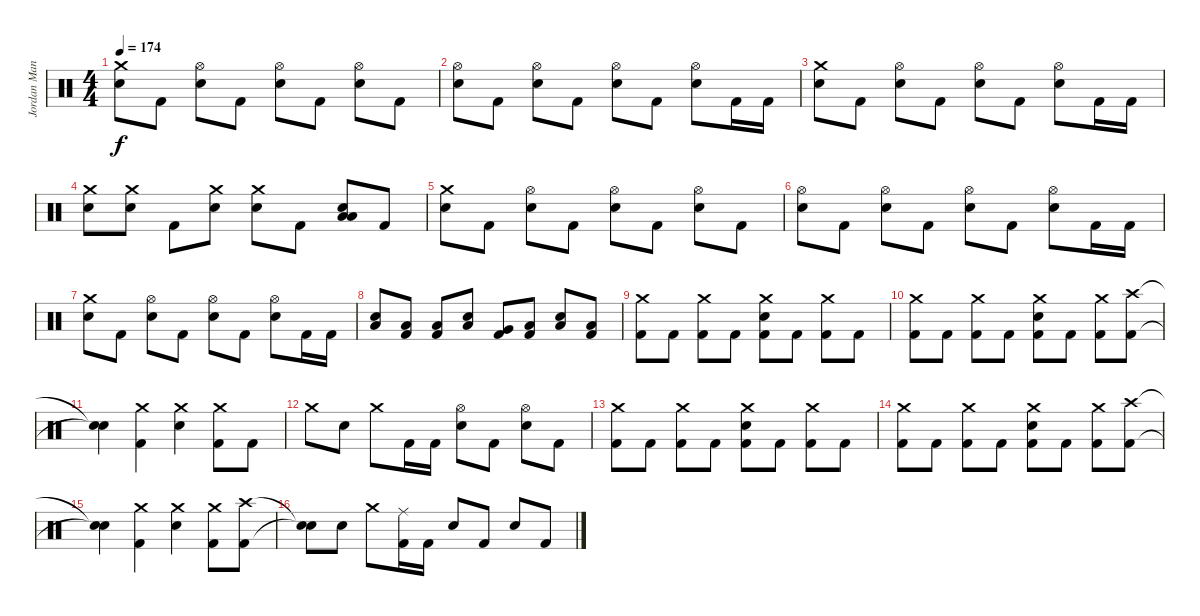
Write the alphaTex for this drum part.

\track ("Jordan Manchino (Drums)" "Jordan Man") {instrument percussion}
\staff {score}
\articulation defaults
\ts (4 4)
\tempo 174
\clef neutral
\ks c
("Crash medium (hit)" "Snare (hit) 2").8{dy f} "Kick (hit) 2".8 ("Hi-Hat (open)" "Snare (hit) 2").8 "Kick (hit) 2".8 ("Hi-Hat (open)" "Snare (hit) 2").8 "Kick (hit) 2".8 ("Hi-Hat (open)" "Snare (hit) 2").8 "Kick (hit) 2".8 |
("Hi-Hat (open)" "Snare (hit) 2").8 "Kick (hit) 2".8 ("Hi-Hat (open)" "Snare (hit) 2").8 "Kick (hit) 2".8 ("Hi-Hat (open)" "Snare (hit) 2").8 "Kick (hit) 2".8 ("Hi-Hat (open)" "Snare (hit) 2").8 "Kick (hit) 2".16 "Kick (hit) 2".16 |
("Crash medium (hit)" "Snare (hit) 2").8 "Kick (hit) 2".8 ("Hi-Hat (open)" "Snare (hit) 2").8 "Kick (hit) 2".8 ("Hi-Hat (open)" "Snare (hit) 2").8 "Kick (hit) 2".8 ("Hi-Hat (open)" "Snare (hit) 2").8 "Kick (hit) 2".16 "Kick (hit) 2".16 |
("Crash medium (hit)" "Snare (hit) 2").8 ("Crash medium (hit)" "Snare (hit) 2").8 "Kick (hit) 2".8 ("Crash medium (hit)" "Snare (hit) 2").8 ("Crash medium (hit)" "Snare (hit) 2").8 "Kick (hit) 2".8 ("Low Floor Tom (hit)" "Low Tom (hit)" "Snare (hit) 2").8 "Kick (hit) 2".8 |
("Crash medium (hit)" "Snare (hit) 2").8 "Kick (hit) 2".8 ("Hi-Hat (open)" "Snare (hit) 2").8 "Kick (hit) 2".8 ("Hi-Hat (open)" "Snare (hit) 2").8 "Kick (hit) 2".8 ("Hi-Hat (open)" "Snare (hit) 2").8 "Kick (hit) 2".8 |
("Hi-Hat (open)" "Snare (hit) 2").8 "Kick (hit) 2".8 ("Hi-Hat (open)" "Snare (hit) 2").8 "Kick (hit) 2".8 ("Hi-Hat (open)" "Snare (hit) 2").8 "Kick (hit) 2".8 ("Hi-Hat (open)" "Snare (hit) 2").8 "Kick (hit) 2".16 "Kick (hit) 2".16 |
("Crash medium (hit)" "Snare (hit) 2").8 "Kick (hit) 2".8 ("Hi-Hat (open)" "Snare (hit) 2").8 "Kick (hit) 2".8 ("Hi-Hat (open)" "Snare (hit) 2").8 "Kick (hit) 2".8 ("Hi-Hat (open)" "Snare (hit) 2").8 "Kick (hit) 2".16 "Kick (hit) 2".16 |
("Low Floor Tom (hit)" "Snare (hit) 2").8 ("Low Tom (hit)" "Kick (hit) 2").8 ("Low Floor Tom (hit)" "Kick (hit) 2").8 ("Low Floor Tom (hit)" "Snare (hit) 2").8 ("Very Low Tom (hit)" "Kick (hit) 2").8 ("Low Floor Tom (hit)" "Kick (hit) 2").8 ("Low Floor Tom (hit)" "Snare (hit) 2").8 ("Low Floor Tom (hit)" "Kick (hit) 2").8 |
("Crash medium (hit)" "Kick (hit) 2").8 "Kick (hit) 2".8 ("Crash medium (hit)" "Kick (hit) 2").8 "Kick (hit) 2".8 ("Snare (hit) 2" "Crash medium (hit)" "Kick (hit) 2").8 "Kick (hit) 2".8 ("Crash medium (hit)" "Kick (hit) 2").8 "Kick (hit) 2".8 |
("Crash medium (hit)" "Kick (hit) 2").8 "Kick (hit) 2".8 ("Crash medium (hit)" "Kick (hit) 2").8 "Kick (hit) 2".8 ("Snare (hit) 2" "Crash medium (hit)" "Kick (hit) 2").8 "Kick (hit) 2".8 ("Crash medium (hit)" "Kick (hit) 2").8 ("Crash high (hit)" "Kick (hit) 2").8 |
("Snare (hit)"{t} "Snare (hit)"{t}).4 ("Crash medium (hit)" "Kick (hit) 2").4 ("Crash medium (hit)" "Snare (hit) 2").4 ("Crash medium (hit)" "Kick (hit) 2").8 "Kick (hit) 2".8 |
"Crash medium (hit)".8 "Snare (hit) 2".8 "Crash medium (hit)".8 "Kick (hit) 2".16 "Kick (hit) 2".16 ("Hi-Hat (open)" "Snare (hit) 2").8 "Kick (hit) 2".8 ("Hi-Hat (open)" "Snare (hit) 2").8 "Kick (hit) 2".8 |
("Crash medium (hit)" "Kick (hit) 2").8 "Kick (hit) 2".8 ("Crash medium (hit)" "Kick (hit) 2").8 "Kick (hit) 2".8 ("Snare (hit) 2" "Crash medium (hit)" "Kick (hit) 2").8 "Kick (hit) 2".8 ("Crash medium (hit)" "Kick (hit) 2").8 "Kick (hit) 2".8 |
("Crash medium (hit)" "Kick (hit) 2").8 "Kick (hit) 2".8 ("Crash medium (hit)" "Kick (hit) 2").8 "Kick (hit) 2".8 ("Snare (hit) 2" "Crash medium (hit)" "Kick (hit) 2").8 "Kick (hit) 2".8 ("Crash medium (hit)" "Kick (hit) 2").8 ("Crash high (hit)" "Kick (hit) 2").8 |
("Snare (hit)"{t} "Snare (hit)"{t}).4 ("Crash medium (hit)" "Kick (hit) 2").4 ("Crash medium (hit)" "Snare (hit) 2").4 ("Crash medium (hit)" "Kick (hit) 2").8 ("Crash high (hit)" "Kick (hit) 2").8 |
("Snare (hit)"{t} "Snare (hit)"{t}).8 "Snare (hit) 2".8 "Crash medium (hit)".8 ("Ride (middle)" "Kick (hit) 2").16 "Kick (hit) 2".16 "Snare (hit) 2".8 "Kick (hit) 2".8 "Snare (hit) 2".8 "Kick (hit) 2".8
